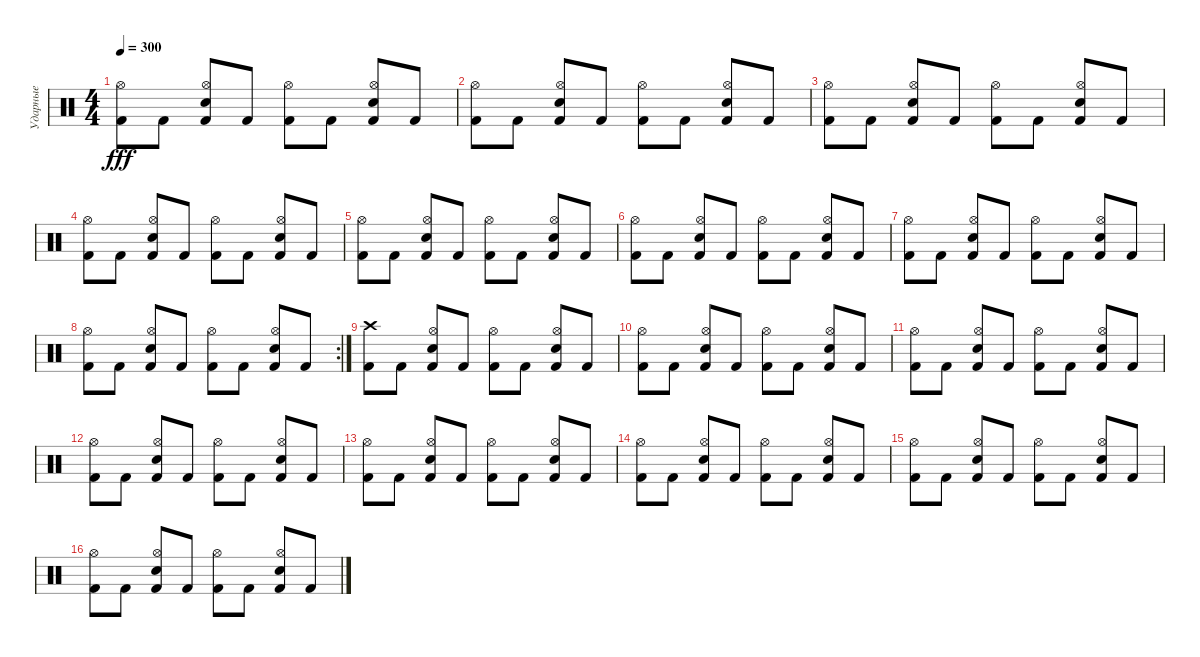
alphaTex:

\track ("Ударные" "Ударные") {instrument percussion}
\staff {score}
\articulation defaults
\ts (4 4)
\tempo 300
\clef neutral
\ks c
("Kick (hit) 2" "Hi-Hat (open)").8{dy fff} "Kick (hit) 2".8 ("Kick (hit) 2" "Snare (hit) 2" "Hi-Hat (open)").8 "Kick (hit) 2".8 ("Kick (hit) 2" "Hi-Hat (open)").8 "Kick (hit) 2".8 ("Kick (hit) 2" "Snare (hit) 2" "Hi-Hat (open)").8 "Kick (hit) 2".8 |
("Kick (hit) 2" "Hi-Hat (open)").8 "Kick (hit) 2".8 ("Kick (hit) 2" "Snare (hit) 2" "Hi-Hat (open)").8 "Kick (hit) 2".8 ("Kick (hit) 2" "Hi-Hat (open)").8 "Kick (hit) 2".8 ("Kick (hit) 2" "Snare (hit) 2" "Hi-Hat (open)").8 "Kick (hit) 2".8 |
("Kick (hit) 2" "Hi-Hat (open)").8 "Kick (hit) 2".8 ("Kick (hit) 2" "Snare (hit) 2" "Hi-Hat (open)").8 "Kick (hit) 2".8 ("Kick (hit) 2" "Hi-Hat (open)").8 "Kick (hit) 2".8 ("Kick (hit) 2" "Snare (hit) 2" "Hi-Hat (open)").8 "Kick (hit) 2".8 |
("Kick (hit) 2" "Hi-Hat (open)").8 "Kick (hit) 2".8 ("Kick (hit) 2" "Snare (hit) 2" "Hi-Hat (open)").8 "Kick (hit) 2".8 ("Kick (hit) 2" "Hi-Hat (open)").8 "Kick (hit) 2".8 ("Kick (hit) 2" "Snare (hit) 2" "Hi-Hat (open)").8 "Kick (hit) 2".8 |
("Kick (hit) 2" "Hi-Hat (open)").8 "Kick (hit) 2".8 ("Kick (hit) 2" "Snare (hit) 2" "Hi-Hat (open)").8 "Kick (hit) 2".8 ("Kick (hit) 2" "Hi-Hat (open)").8 "Kick (hit) 2".8 ("Kick (hit) 2" "Snare (hit) 2" "Hi-Hat (open)").8 "Kick (hit) 2".8 |
("Kick (hit) 2" "Hi-Hat (open)").8 "Kick (hit) 2".8 ("Kick (hit) 2" "Snare (hit) 2" "Hi-Hat (open)").8 "Kick (hit) 2".8 ("Kick (hit) 2" "Hi-Hat (open)").8 "Kick (hit) 2".8 ("Kick (hit) 2" "Snare (hit) 2" "Hi-Hat (open)").8 "Kick (hit) 2".8 |
("Kick (hit) 2" "Hi-Hat (open)").8 "Kick (hit) 2".8 ("Kick (hit) 2" "Snare (hit) 2" "Hi-Hat (open)").8 "Kick (hit) 2".8 ("Kick (hit) 2" "Hi-Hat (open)").8 "Kick (hit) 2".8 ("Kick (hit) 2" "Snare (hit) 2" "Hi-Hat (open)").8 "Kick (hit) 2".8 |
\rc 2
("Kick (hit) 2" "Hi-Hat (open)").8 "Kick (hit) 2".8 ("Kick (hit) 2" "Snare (hit) 2" "Hi-Hat (open)").8 "Kick (hit) 2".8 ("Kick (hit) 2" "Hi-Hat (open)").8 "Kick (hit) 2".8 ("Kick (hit) 2" "Snare (hit) 2" "Hi-Hat (open)").8 "Kick (hit) 2".8 |
("Kick (hit) 2" "Crash high (hit)").8 "Kick (hit) 2".8 ("Kick (hit) 2" "Snare (hit) 2" "Hi-Hat (open)").8 "Kick (hit) 2".8 ("Kick (hit) 2" "Hi-Hat (open)").8 "Kick (hit) 2".8 ("Kick (hit) 2" "Snare (hit) 2" "Hi-Hat (open)").8 "Kick (hit) 2".8 |
("Kick (hit) 2" "Hi-Hat (open)").8 "Kick (hit) 2".8 ("Kick (hit) 2" "Snare (hit) 2" "Hi-Hat (open)").8 "Kick (hit) 2".8 ("Kick (hit) 2" "Hi-Hat (open)").8 "Kick (hit) 2".8 ("Kick (hit) 2" "Snare (hit) 2" "Hi-Hat (open)").8 "Kick (hit) 2".8 |
("Kick (hit) 2" "Hi-Hat (open)").8 "Kick (hit) 2".8 ("Kick (hit) 2" "Snare (hit) 2" "Hi-Hat (open)").8 "Kick (hit) 2".8 ("Kick (hit) 2" "Hi-Hat (open)").8 "Kick (hit) 2".8 ("Kick (hit) 2" "Snare (hit) 2" "Hi-Hat (open)").8 "Kick (hit) 2".8 |
("Kick (hit) 2" "Hi-Hat (open)").8 "Kick (hit) 2".8 ("Kick (hit) 2" "Snare (hit) 2" "Hi-Hat (open)").8 "Kick (hit) 2".8 ("Kick (hit) 2" "Hi-Hat (open)").8 "Kick (hit) 2".8 ("Kick (hit) 2" "Snare (hit) 2" "Hi-Hat (open)").8 "Kick (hit) 2".8 |
("Kick (hit) 2" "Hi-Hat (open)").8 "Kick (hit) 2".8 ("Kick (hit) 2" "Snare (hit) 2" "Hi-Hat (open)").8 "Kick (hit) 2".8 ("Kick (hit) 2" "Hi-Hat (open)").8 "Kick (hit) 2".8 ("Kick (hit) 2" "Snare (hit) 2" "Hi-Hat (open)").8 "Kick (hit) 2".8 |
("Kick (hit) 2" "Hi-Hat (open)").8 "Kick (hit) 2".8 ("Kick (hit) 2" "Snare (hit) 2" "Hi-Hat (open)").8 "Kick (hit) 2".8 ("Kick (hit) 2" "Hi-Hat (open)").8 "Kick (hit) 2".8 ("Kick (hit) 2" "Snare (hit) 2" "Hi-Hat (open)").8 "Kick (hit) 2".8 |
("Kick (hit) 2" "Hi-Hat (open)").8 "Kick (hit) 2".8 ("Kick (hit) 2" "Snare (hit) 2" "Hi-Hat (open)").8 "Kick (hit) 2".8 ("Kick (hit) 2" "Hi-Hat (open)").8 "Kick (hit) 2".8 ("Kick (hit) 2" "Snare (hit) 2" "Hi-Hat (open)").8 "Kick (hit) 2".8 |
("Kick (hit) 2" "Hi-Hat (open)").8 "Kick (hit) 2".8 ("Kick (hit) 2" "Snare (hit) 2" "Hi-Hat (open)").8 "Kick (hit) 2".8 ("Kick (hit) 2" "Hi-Hat (open)").8 "Kick (hit) 2".8 ("Kick (hit) 2" "Snare (hit) 2" "Hi-Hat (open)").8 "Kick (hit) 2".8
